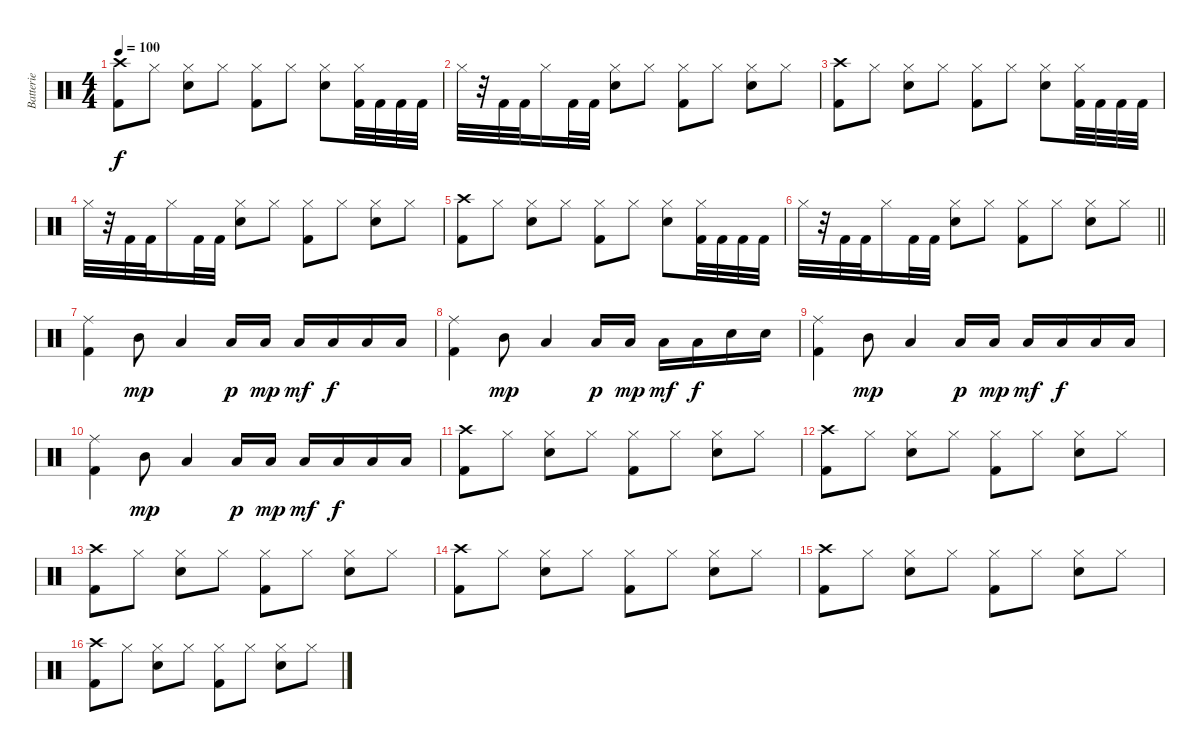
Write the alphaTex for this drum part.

\track ("Batterie" "Batterie") {instrument percussion}
\staff {score}
\articulation defaults
\ts (4 4)
\tempo 100
\clef neutral
\ks c
("Crash high (hit)" "Kick (hit) 2").8{dy f} "Hi-Hat (closed)".8 ("Hi-Hat (closed)" "Snare (hit) 2").8 "Hi-Hat (closed)".8 ("Hi-Hat (closed)" "Kick (hit) 2").8 "Hi-Hat (closed)".8 ("Hi-Hat (closed)" "Snare (hit) 2").8 ("Hi-Hat (closed)" "Kick (hit) 2").32 "Kick (hit) 2".32 "Kick (hit) 2".32 "Kick (hit) 2".32 |
"Hi-Hat (closed)".32 r.32 "Kick (hit) 2".32 "Kick (hit) 2".32 "Hi-Hat (closed)".16 "Kick (hit) 2".32 "Kick (hit) 2".32 ("Hi-Hat (closed)" "Snare (hit) 2").8 "Hi-Hat (closed)".8 ("Hi-Hat (closed)" "Kick (hit) 2").8 "Hi-Hat (closed)".8 ("Hi-Hat (closed)" "Snare (hit) 2").8 "Hi-Hat (closed)".8 |
("Crash high (hit)" "Kick (hit) 2").8 "Hi-Hat (closed)".8 ("Hi-Hat (closed)" "Snare (hit) 2").8 "Hi-Hat (closed)".8 ("Hi-Hat (closed)" "Kick (hit) 2").8 "Hi-Hat (closed)".8 ("Hi-Hat (closed)" "Snare (hit) 2").8 ("Hi-Hat (closed)" "Kick (hit) 2").32 "Kick (hit) 2".32 "Kick (hit) 2".32 "Kick (hit) 2".32 |
"Hi-Hat (closed)".32 r.32 "Kick (hit) 2".32 "Kick (hit) 2".32 "Hi-Hat (closed)".16 "Kick (hit) 2".32 "Kick (hit) 2".32 ("Hi-Hat (closed)" "Snare (hit) 2").8 "Hi-Hat (closed)".8 ("Hi-Hat (closed)" "Kick (hit) 2").8 "Hi-Hat (closed)".8 ("Hi-Hat (closed)" "Snare (hit) 2").8 "Hi-Hat (closed)".8 |
("Crash high (hit)" "Kick (hit) 2").8 "Hi-Hat (closed)".8 ("Hi-Hat (closed)" "Snare (hit) 2").8 "Hi-Hat (closed)".8 ("Hi-Hat (closed)" "Kick (hit) 2").8 "Hi-Hat (closed)".8 ("Hi-Hat (closed)" "Snare (hit) 2").8 ("Hi-Hat (closed)" "Kick (hit) 2").32 "Kick (hit) 2".32 "Kick (hit) 2".32 "Kick (hit) 2".32 |
\barLineRight lightlight "Hi-Hat (closed)".32
r.32 "Kick (hit) 2".32 "Kick (hit) 2".32 "Hi-Hat (closed)".16 "Kick (hit) 2".32 "Kick (hit) 2".32 ("Hi-Hat (closed)" "Snare (hit) 2").8 "Hi-Hat (closed)".8 ("Hi-Hat (closed)" "Kick (hit) 2").8 "Hi-Hat (closed)".8 ("Hi-Hat (closed)" "Snare (hit) 2").8 "Hi-Hat (closed)".8 |
\section ("" "")
("Ride (middle)" "Kick (hit) 2").4 "Mid Tom (hit)".8{dy mp} "Low Tom (hit)".4 "Low Tom (hit)".16{dy p} "Low Tom (hit)".16{dy mp} "Low Tom (hit)".16{dy mf} "Low Tom (hit)".16{dy f} "Low Tom (hit)".16 "Low Tom (hit)".16 |
("Ride (middle)" "Kick (hit) 2").4 "Mid Tom (hit)".8{dy mp} "Low Tom (hit)".4 "Low Tom (hit)".16{dy p} "Low Tom (hit)".16{dy mp} "Low Tom (hit)".16{dy mf} "Low Tom (hit)".16{dy f} "Snare (hit) 2".16 "Snare (hit) 2".16 |
("Ride (middle)" "Kick (hit) 2").4 "Mid Tom (hit)".8{dy mp} "Low Tom (hit)".4 "Low Tom (hit)".16{dy p} "Low Tom (hit)".16{dy mp} "Low Tom (hit)".16{dy mf} "Low Tom (hit)".16{dy f} "Low Tom (hit)".16 "Low Tom (hit)".16 |
("Ride (middle)" "Kick (hit) 2").4 "Mid Tom (hit)".8{dy mp} "Low Tom (hit)".4 "Low Tom (hit)".16{dy p} "Low Tom (hit)".16{dy mp} "Low Tom (hit)".16{dy mf} "Low Tom (hit)".16{dy f} "Low Tom (hit)".16 "Low Tom (hit)".16 |
("Crash high (hit)" "Kick (hit) 2").8 "Hi-Hat (closed)".8 ("Hi-Hat (closed)" "Snare (hit) 2").8 "Hi-Hat (closed)".8 ("Hi-Hat (closed)" "Kick (hit) 2").8 "Hi-Hat (closed)".8 ("Hi-Hat (closed)" "Snare (hit) 2").8 "Hi-Hat (closed)".8 |
("Crash high (hit)" "Kick (hit) 2").8 "Hi-Hat (closed)".8 ("Hi-Hat (closed)" "Snare (hit) 2").8 "Hi-Hat (closed)".8 ("Hi-Hat (closed)" "Kick (hit) 2").8 "Hi-Hat (closed)".8 ("Hi-Hat (closed)" "Snare (hit) 2").8 "Hi-Hat (closed)".8 |
("Crash high (hit)" "Kick (hit) 2").8 "Hi-Hat (closed)".8 ("Hi-Hat (closed)" "Snare (hit) 2").8 "Hi-Hat (closed)".8 ("Hi-Hat (closed)" "Kick (hit) 2").8 "Hi-Hat (closed)".8 ("Hi-Hat (closed)" "Snare (hit) 2").8 "Hi-Hat (closed)".8 |
("Crash high (hit)" "Kick (hit) 2").8 "Hi-Hat (closed)".8 ("Hi-Hat (closed)" "Snare (hit) 2").8 "Hi-Hat (closed)".8 ("Hi-Hat (closed)" "Kick (hit) 2").8 "Hi-Hat (closed)".8 ("Hi-Hat (closed)" "Snare (hit) 2").8 "Hi-Hat (closed)".8 |
("Crash high (hit)" "Kick (hit) 2").8 "Hi-Hat (closed)".8 ("Hi-Hat (closed)" "Snare (hit) 2").8 "Hi-Hat (closed)".8 ("Hi-Hat (closed)" "Kick (hit) 2").8 "Hi-Hat (closed)".8 ("Hi-Hat (closed)" "Snare (hit) 2").8 "Hi-Hat (closed)".8 |
("Crash high (hit)" "Kick (hit) 2").8 "Hi-Hat (closed)".8 ("Hi-Hat (closed)" "Snare (hit) 2").8 "Hi-Hat (closed)".8 ("Hi-Hat (closed)" "Kick (hit) 2").8 "Hi-Hat (closed)".8 ("Hi-Hat (closed)" "Snare (hit) 2").8 "Hi-Hat (closed)".8
